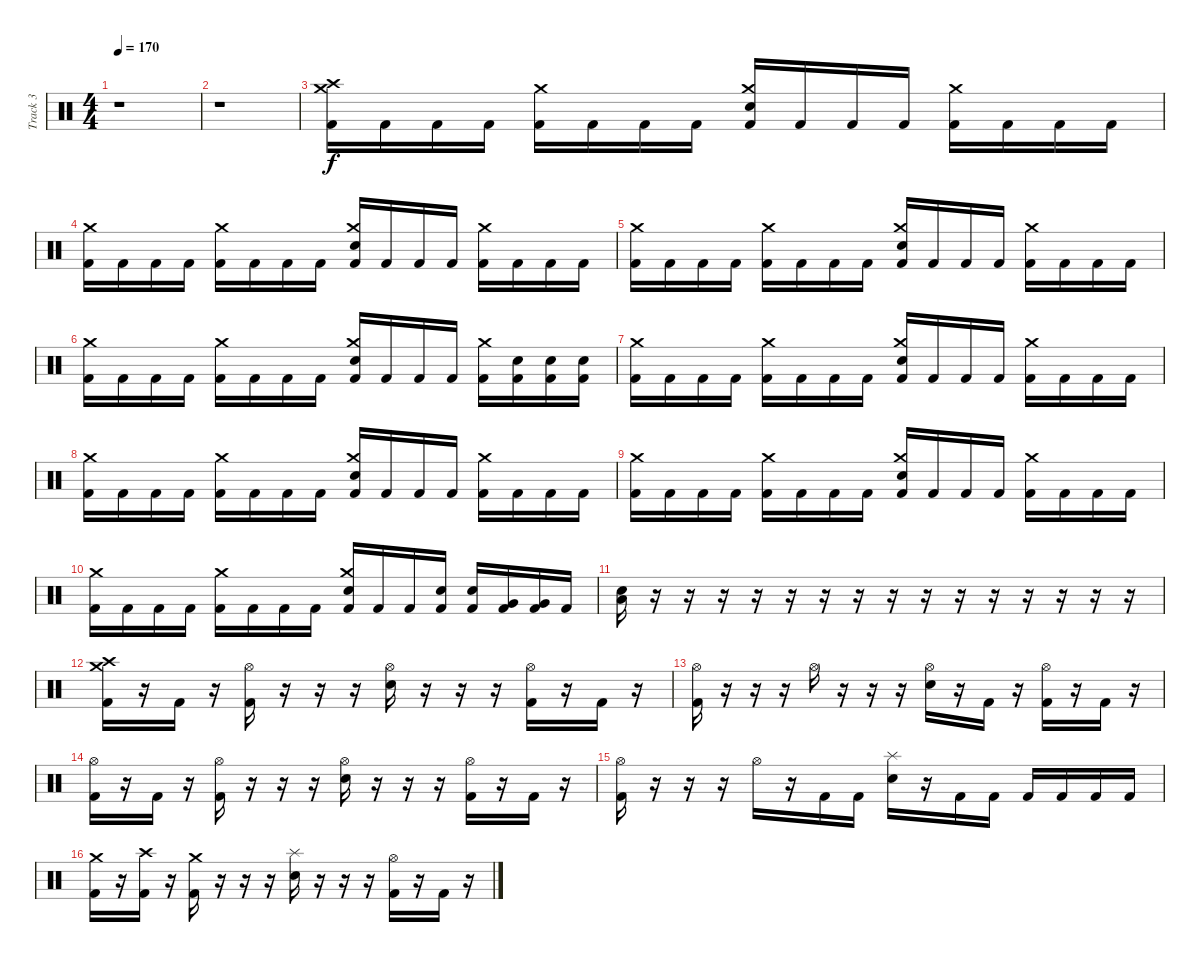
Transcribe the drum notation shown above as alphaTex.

\track ("Track 3" "Track 3") {instrument percussion}
\staff {score}
\articulation defaults
\ts (4 4)
\tempo 170
\clef neutral
\ks c
r.1{dy f} |
r.1 |
("Kick (hit) 2" "Crash medium (hit)" "Crash high (hit)").16 "Kick (hit) 2".16 "Kick (hit) 2".16 "Kick (hit) 2".16 ("Kick (hit) 2" "Crash medium (hit)").16 "Kick (hit) 2".16 "Kick (hit) 2".16 "Kick (hit) 2".16 ("Kick (hit) 2" "Crash medium (hit)" "Electric Snare (hit)").16 "Kick (hit) 2".16 "Kick (hit) 2".16 "Kick (hit) 2".16 ("Kick (hit) 2" "Crash medium (hit)").16 "Kick (hit) 2".16 "Kick (hit) 2".16 "Kick (hit) 2".16 |
("Kick (hit) 2" "Crash medium (hit)").16 "Kick (hit) 2".16 "Kick (hit) 2".16 "Kick (hit) 2".16 ("Kick (hit) 2" "Crash medium (hit)").16 "Kick (hit) 2".16 "Kick (hit) 2".16 "Kick (hit) 2".16 ("Kick (hit) 2" "Crash medium (hit)" "Electric Snare (hit)").16 "Kick (hit) 2".16 "Kick (hit) 2".16 "Kick (hit) 2".16 ("Kick (hit) 2" "Crash medium (hit)").16 "Kick (hit) 2".16 "Kick (hit) 2".16 "Kick (hit) 2".16 |
("Kick (hit) 2" "Crash medium (hit)").16 "Kick (hit) 2".16 "Kick (hit) 2".16 "Kick (hit) 2".16 ("Kick (hit) 2" "Crash medium (hit)").16 "Kick (hit) 2".16 "Kick (hit) 2".16 "Kick (hit) 2".16 ("Kick (hit) 2" "Crash medium (hit)" "Electric Snare (hit)").16 "Kick (hit) 2".16 "Kick (hit) 2".16 "Kick (hit) 2".16 ("Kick (hit) 2" "Crash medium (hit)").16 "Kick (hit) 2".16 "Kick (hit) 2".16 "Kick (hit) 2".16 |
("Kick (hit) 2" "Crash medium (hit)").16 "Kick (hit) 2".16 "Kick (hit) 2".16 "Kick (hit) 2".16 ("Kick (hit) 2" "Crash medium (hit)").16 "Kick (hit) 2".16 "Kick (hit) 2".16 "Kick (hit) 2".16 ("Kick (hit) 2" "Crash medium (hit)" "Electric Snare (hit)").16 "Kick (hit) 2".16 "Kick (hit) 2".16 "Kick (hit) 2".16 ("Kick (hit) 2" "Crash medium (hit)").16 ("Kick (hit) 2" "Electric Snare (hit)").16 ("Kick (hit) 2" "Electric Snare (hit)").16 ("Kick (hit) 2" "Electric Snare (hit)").16 |
("Kick (hit) 2" "Crash medium (hit)").16 "Kick (hit) 2".16 "Kick (hit) 2".16 "Kick (hit) 2".16 ("Kick (hit) 2" "Crash medium (hit)").16 "Kick (hit) 2".16 "Kick (hit) 2".16 "Kick (hit) 2".16 ("Kick (hit) 2" "Crash medium (hit)" "Electric Snare (hit)").16 "Kick (hit) 2".16 "Kick (hit) 2".16 "Kick (hit) 2".16 ("Kick (hit) 2" "Crash medium (hit)").16 "Kick (hit) 2".16 "Kick (hit) 2".16 "Kick (hit) 2".16 |
("Kick (hit) 2" "Crash medium (hit)").16 "Kick (hit) 2".16 "Kick (hit) 2".16 "Kick (hit) 2".16 ("Kick (hit) 2" "Crash medium (hit)").16 "Kick (hit) 2".16 "Kick (hit) 2".16 "Kick (hit) 2".16 ("Kick (hit) 2" "Crash medium (hit)" "Electric Snare (hit)").16 "Kick (hit) 2".16 "Kick (hit) 2".16 "Kick (hit) 2".16 ("Kick (hit) 2" "Crash medium (hit)").16 "Kick (hit) 2".16 "Kick (hit) 2".16 "Kick (hit) 2".16 |
("Kick (hit) 2" "Crash medium (hit)").16 "Kick (hit) 2".16 "Kick (hit) 2".16 "Kick (hit) 2".16 ("Kick (hit) 2" "Crash medium (hit)").16 "Kick (hit) 2".16 "Kick (hit) 2".16 "Kick (hit) 2".16 ("Kick (hit) 2" "Crash medium (hit)" "Electric Snare (hit)").16 "Kick (hit) 2".16 "Kick (hit) 2".16 "Kick (hit) 2".16 ("Kick (hit) 2" "Crash medium (hit)").16 "Kick (hit) 2".16 "Kick (hit) 2".16 "Kick (hit) 2".16 |
("Kick (hit) 2" "Crash medium (hit)").16 "Kick (hit) 2".16 "Kick (hit) 2".16 "Kick (hit) 2".16 ("Kick (hit) 2" "Crash medium (hit)").16 "Kick (hit) 2".16 "Kick (hit) 2".16 "Kick (hit) 2".16 ("Kick (hit) 2" "Crash medium (hit)" "Electric Snare (hit)").16 "Kick (hit) 2".16 "Kick (hit) 2".16 ("Kick (hit) 2" "Electric Snare (hit)").16 ("Kick (hit) 2" "Electric Snare (hit)").16 ("Kick (hit) 2" "Very Low Tom (hit)").16 ("Kick (hit) 2" "Very Low Tom (hit)").16 "Kick (hit) 2".16 |
("Electric Snare (hit)" "Low Floor Tom (hit)").16 r.16 r.16 r.16 r.16 r.16 r.16 r.16 r.16 r.16 r.16 r.16 r.16 r.16 r.16 r.16 |
("Kick (hit) 2" "Crash medium (hit)" "Crash high (hit)").16 r.16 "Kick (hit) 2".16 r.16 ("Kick (hit) 2" "Hi-Hat (open)").16 r.16 r.16 r.16 ("Hi-Hat (open)" "Electric Snare (hit)").16 r.16 r.16 r.16 ("Hi-Hat (open)" "Kick (hit) 2").16 r.16 "Kick (hit) 2".16 r.16 |
("Kick (hit) 2" "Hi-Hat (open)").16 r.16 r.16 r.16 "Hi-Hat (open)".16 r.16 r.16 r.16 ("Hi-Hat (open)" "Electric Snare (hit)").16 r.16 "Kick (hit) 2".16 r.16 ("Hi-Hat (open)" "Kick (hit) 2").16 r.16 "Kick (hit) 2".16 r.16 |
("Kick (hit) 2" "Hi-Hat (open)").16 r.16 "Kick (hit) 2".16 r.16 ("Hi-Hat (open)" "Kick (hit) 2").16 r.16 r.16 r.16 ("Hi-Hat (open)" "Electric Snare (hit)").16 r.16 r.16 r.16 ("Hi-Hat (open)" "Kick (hit) 2").16 r.16 "Kick (hit) 2".16 r.16 |
("Hi-Hat (open)" "Kick (hit) 2").16 r.16 r.16 r.16 "Hi-Hat (open)".16 r.16 "Kick (hit) 2".16 "Kick (hit) 2".16 ("Electric Snare (hit)" "Splash (hit)").16 r.16 "Kick (hit) 2".16 "Kick (hit) 2".16 "Kick (hit) 2".16 "Kick (hit) 2".16 "Kick (hit) 2".16 "Kick (hit) 2".16 |
("Kick (hit) 2" "Crash medium (hit)").16 r.16 ("Kick (hit) 2" "Crash high (hit)").16 r.16 ("Kick (hit) 2" "Crash medium (hit)").16 r.16 r.16 r.16 ("Splash (hit)" "Electric Snare (hit)").16 r.16 r.16 r.16 ("Hi-Hat (open)" "Kick (hit) 2").16 r.16 "Kick (hit) 2".16 r.16
